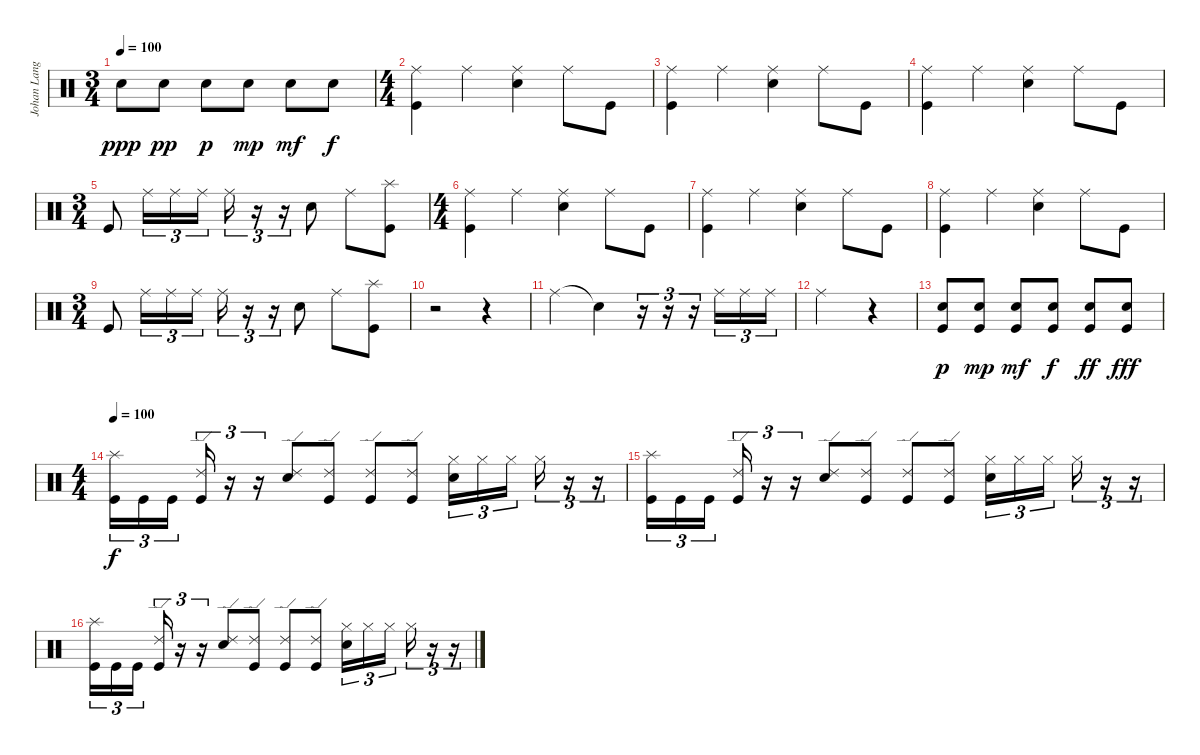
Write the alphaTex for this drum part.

\track ("Johan Langell" "Johan Lang") {instrument percussion}
\staff {score}
\articulation defaults
\ts (3 4)
\tempo 100
\clef neutral
\ks c "Electric Snare (hit)".8{dy ppp} "Electric Snare (hit)".8{dy pp} "Electric Snare (hit)".8{dy p} "Electric Snare (hit)".8{dy mp} "Electric Snare (hit)".8{dy mf} "Electric Snare (hit)".8{dy f}
|
\ts (4 4)
("Ride (middle)" "Kick (hit)").4 "Ride (middle)".4 ("Ride (middle)" "Electric Snare (hit)").4 "Ride (middle)".8 "Kick (hit)".8 |
("Ride (middle)" "Kick (hit)").4 "Ride (middle)".4 ("Ride (middle)" "Electric Snare (hit)").4 "Ride (middle)".8 "Kick (hit)".8 |
("Ride (middle)" "Kick (hit)").4 "Ride (middle)".4 ("Ride (middle)" "Electric Snare (hit)").4 "Ride (middle)".8 "Kick (hit)".8 |
\ts (3 4)
"Kick (hit)".8 "Ride (middle)".16{tu (3 2)} "Ride (middle)".16{tu (3 2)} "Ride (middle)".16{tu (3 2)} "Ride (middle)".16{tu (3 2)} r.16{tu (3 2)} r.16{tu (3 2)} "Electric Snare (hit)".8 "Ride (middle)".8 ("Splash (hit)" "Kick (hit)").8 |
\ts (4 4)
("Ride (middle)" "Kick (hit)").4 "Ride (middle)".4 ("Ride (middle)" "Electric Snare (hit)").4 "Ride (middle)".8 "Kick (hit)".8 |
("Ride (middle)" "Kick (hit)").4 "Ride (middle)".4 ("Ride (middle)" "Electric Snare (hit)").4 "Ride (middle)".8 "Kick (hit)".8 |
("Ride (middle)" "Kick (hit)").4 "Ride (middle)".4 ("Ride (middle)" "Electric Snare (hit)").4 "Ride (middle)".8 "Kick (hit)".8 |
\ts (3 4)
"Kick (hit)".8 "Ride (middle)".16{tu (3 2)} "Ride (middle)".16{tu (3 2)} "Ride (middle)".16{tu (3 2)} "Ride (middle)".16{tu (3 2)} r.16{tu (3 2)} r.16{tu (3 2)} "Electric Snare (hit)".8 "Ride (middle)".8 ("Splash (hit)" "Kick (hit)").8 |
r.2 r.4 |
"Ride (middle)".4 "Snare (hit)"{t}.4 r.16{tu (3 2)} r.16{tu (3 2)} r.16{tu (3 2)} "Ride (middle)".16{tu (3 2)} "Ride (middle)".16{tu (3 2)} "Ride (middle)".16{tu (3 2)} |
"Ride (middle)".2 r.4 |
("Electric Snare (hit)" "Kick (hit)").8{dy p} ("Electric Snare (hit)" "Kick (hit)").8{dy mp} ("Electric Snare (hit)" "Kick (hit)").8{dy mf} ("Electric Snare (hit)" "Kick (hit)").8{dy f} ("Electric Snare (hit)" "Kick (hit)").8{dy ff} ("Electric Snare (hit)" "Kick (hit)").8{dy fff} |
\ts (4 4)
\tempo 100
("Splash (hit)" "Kick (hit)").16{tu (3 2) dy f} "Kick (hit)".16{tu (3 2)} "Kick (hit)".16{tu (3 2)} ("Ride (edge) 2" "Kick (hit)").16{tu (3 2)} r.16{tu (3 2)} r.16{tu (3 2)} ("Ride (edge) 2" "Electric Snare (hit)").8 ("Ride (edge) 2" "Kick (hit)").8 ("Ride (edge) 2" "Kick (hit)").8 ("Ride (edge) 2" "Kick (hit)").8 ("Hi-Hat (closed)" "Electric Snare (hit)").16{tu (3 2)} "Hi-Hat (closed)".16{tu (3 2)} "Hi-Hat (closed)".16{tu (3 2)} "Hi-Hat (closed)".16{tu (3 2)} r.16{tu (3 2)} r.16{tu (3 2)} |
("Splash (hit)" "Kick (hit)").16{tu (3 2)} "Kick (hit)".16{tu (3 2)} "Kick (hit)".16{tu (3 2)} ("Ride (edge) 2" "Kick (hit)").16{tu (3 2)} r.16{tu (3 2)} r.16{tu (3 2)} ("Ride (edge) 2" "Electric Snare (hit)").8 ("Ride (edge) 2" "Kick (hit)").8 ("Ride (edge) 2" "Kick (hit)").8 ("Ride (edge) 2" "Kick (hit)").8 ("Hi-Hat (closed)" "Electric Snare (hit)").16{tu (3 2)} "Hi-Hat (closed)".16{tu (3 2)} "Hi-Hat (closed)".16{tu (3 2)} "Hi-Hat (closed)".16{tu (3 2)} r.16{tu (3 2)} r.16{tu (3 2)} |
("Splash (hit)" "Kick (hit)").16{tu (3 2)} "Kick (hit)".16{tu (3 2)} "Kick (hit)".16{tu (3 2)} ("Ride (edge) 2" "Kick (hit)").16{tu (3 2)} r.16{tu (3 2)} r.16{tu (3 2)} ("Ride (edge) 2" "Electric Snare (hit)").8 ("Ride (edge) 2" "Kick (hit)").8 ("Ride (edge) 2" "Kick (hit)").8 ("Ride (edge) 2" "Kick (hit)").8 ("Hi-Hat (closed)" "Electric Snare (hit)").16{tu (3 2)} "Hi-Hat (closed)".16{tu (3 2)} "Hi-Hat (closed)".16{tu (3 2)} "Hi-Hat (closed)".16{tu (3 2)} r.16{tu (3 2)} r.16{tu (3 2)}
